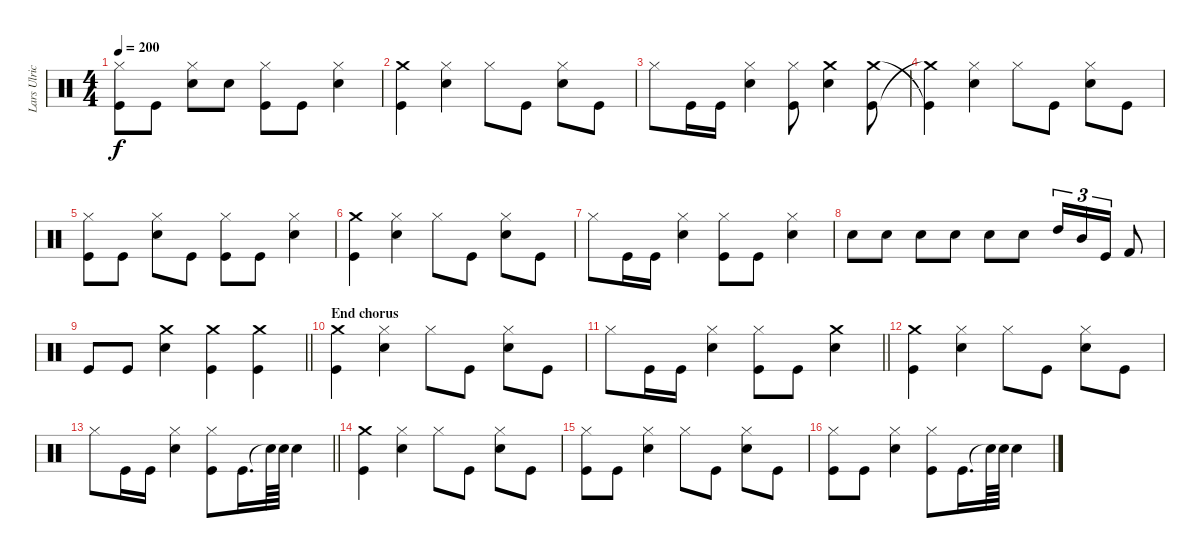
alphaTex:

\track ("Lars Ulrich (Drums)" "Lars Ulric") {instrument percussion}
\staff {score}
\articulation defaults
\ts (4 4)
\tempo 200
\clef neutral
\ks c
("Kick (hit)" "Hi-Hat (closed)").8{dy f} "Kick (hit)".8 ("Snare (hit) 2" "Hi-Hat (closed)").8 "Snare (hit) 2".8 ("Kick (hit)" "Hi-Hat (closed)").8 "Kick (hit)".8 ("Snare (hit) 2" "Hi-Hat (closed)").4 |
("Kick (hit)" "Crash medium (hit)").4 ("Hi-Hat (closed)" "Snare (hit) 2").4 "Hi-Hat (closed)".8 "Kick (hit)".8 ("Snare (hit) 2" "Hi-Hat (closed)").8 "Kick (hit)".8 |
"Hi-Hat (closed)".8 "Kick (hit)".16 "Kick (hit)".16 ("Snare (hit) 2" "Hi-Hat (closed)").4 ("Kick (hit)" "Hi-Hat (closed)").8 ("Snare (hit) 2" "Crash medium (hit)").4 ("Crash medium (hit)" "Kick (hit)").8 |
("Kick (hit)"{t} "Crash medium (hit)"{t}).4 ("Hi-Hat (closed)" "Snare (hit) 2").4 "Hi-Hat (closed)".8 "Kick (hit)".8 ("Snare (hit) 2" "Hi-Hat (closed)").8 "Kick (hit)".8 |
("Hi-Hat (closed)" "Kick (hit)").8 "Kick (hit)".8 ("Snare (hit) 2" "Hi-Hat (closed)").8 "Kick (hit)".8 ("Hi-Hat (closed)" "Kick (hit)").8 "Kick (hit)".8 ("Snare (hit) 2" "Hi-Hat (closed)").4 |
("Kick (hit)" "Crash medium (hit)").4 ("Hi-Hat (closed)" "Snare (hit) 2").4 "Hi-Hat (closed)".8 "Kick (hit)".8 ("Snare (hit) 2" "Hi-Hat (closed)").8 "Kick (hit)".8 |
"Hi-Hat (closed)".8 "Kick (hit)".16 "Kick (hit)".16 ("Snare (hit) 2" "Hi-Hat (closed)").4 ("Kick (hit)" "Hi-Hat (closed)").8 "Kick (hit)".8 ("Snare (hit) 2" "Hi-Hat (closed)").4 |
"Snare (hit) 2".8 "Snare (hit) 2".8 "Snare (hit) 2".8 "Snare (hit) 2".8 "Snare (hit) 2".8 "Snare (hit) 2".8 "High Tom (hit)".16{tu (3 2)} "Mid Tom (hit)".16{tu (3 2)} "Kick (hit)".16{tu (3 2)} "Kick (hit) 2".8 |
\barLineRight lightlight "Kick (hit)".8 "Kick (hit)".8
("Crash medium (hit)" "Snare (hit) 2").4 ("Crash medium (hit)" "Kick (hit)").4 ("Crash medium (hit)" "Kick (hit)").4 |
\section ("" "End chorus")
("Kick (hit)" "Crash medium (hit)").4 ("Hi-Hat (closed)" "Snare (hit) 2").4 "Hi-Hat (closed)".8 "Kick (hit)".8 ("Snare (hit) 2" "Hi-Hat (closed)").8 "Kick (hit)".8 |
\barLineRight lightlight "Hi-Hat (closed)".8 "Kick (hit)".16 "Kick (hit)".16
("Snare (hit) 2" "Hi-Hat (closed)").4 ("Kick (hit)" "Hi-Hat (closed)").8 "Kick (hit)".8 ("Crash medium (hit)" "Snare (hit) 2").4 |
("Kick (hit)" "Crash medium (hit)").4 ("Hi-Hat (closed)" "Snare (hit) 2").4 "Hi-Hat (closed)".8 "Kick (hit)".8 ("Snare (hit) 2" "Hi-Hat (closed)").8 "Kick (hit)".8 |
\barLineRight lightlight "Hi-Hat (closed)".8 "Kick (hit)".16 "Kick (hit)".16
("Snare (hit) 2" "Hi-Hat (closed)").4 ("Kick (hit)" "Hi-Hat (closed)").8 "Kick (hit)".16{d} "Snare (hit)"{t}.64 "Snare (hit) 2".64 "Snare (hit) 2".4 |
("Kick (hit)" "Crash medium (hit)").4 ("Snare (hit) 2" "Hi-Hat (closed)").4 "Hi-Hat (closed)".8 "Kick (hit)".8 ("Snare (hit) 2" "Hi-Hat (closed)").8 "Kick (hit)".8 |
("Kick (hit)" "Hi-Hat (closed)").8 "Kick (hit)".8 ("Snare (hit) 2" "Hi-Hat (closed)").4 "Hi-Hat (closed)".8 "Kick (hit)".8 ("Snare (hit) 2" "Hi-Hat (closed)").8 "Kick (hit)".8 |
("Hi-Hat (closed)" "Kick (hit)").8 "Kick (hit)".8 ("Snare (hit) 2" "Hi-Hat (closed)").4 ("Hi-Hat (closed)" "Kick (hit)").8 "Kick (hit)".16{d} "Snare (hit)"{t}.64 "Snare (hit) 2".64 "Snare (hit) 2".4
